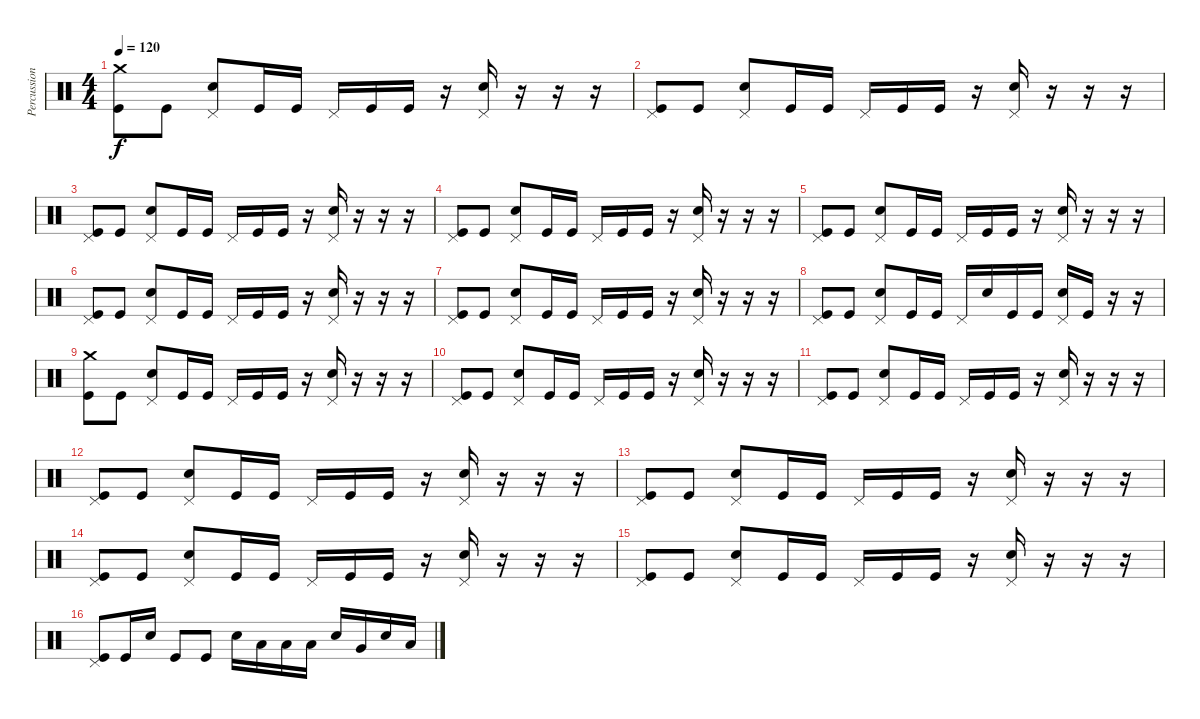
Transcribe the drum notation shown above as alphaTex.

\track ("Percussion" "Percussion") {instrument percussion}
\staff {score}
\articulation defaults
\ts (4 4)
\tempo 120
\clef neutral
\ks c
("Crash medium (hit)" "Kick (hit)").8{dy f} "Kick (hit)".8 ("Pedal Hi-Hat (hit)" "Electric Snare (hit)").8 "Kick (hit)".16 "Kick (hit)".16 "Pedal Hi-Hat (hit)".16 "Kick (hit)".16 "Kick (hit)".16 r.16 ("Pedal Hi-Hat (hit)" "Electric Snare (hit)").16 r.16 r.16 r.16 |
("Pedal Hi-Hat (hit)" "Kick (hit)").8 "Kick (hit)".8 ("Pedal Hi-Hat (hit)" "Electric Snare (hit)").8 "Kick (hit)".16 "Kick (hit)".16 "Pedal Hi-Hat (hit)".16 "Kick (hit)".16 "Kick (hit)".16 r.16 ("Pedal Hi-Hat (hit)" "Electric Snare (hit)").16 r.16 r.16 r.16 |
("Pedal Hi-Hat (hit)" "Kick (hit)").8 "Kick (hit)".8 ("Pedal Hi-Hat (hit)" "Electric Snare (hit)").8 "Kick (hit)".16 "Kick (hit)".16 "Pedal Hi-Hat (hit)".16 "Kick (hit)".16 "Kick (hit)".16 r.16 ("Pedal Hi-Hat (hit)" "Electric Snare (hit)").16 r.16 r.16 r.16 |
("Pedal Hi-Hat (hit)" "Kick (hit)").8 "Kick (hit)".8 ("Pedal Hi-Hat (hit)" "Electric Snare (hit)").8 "Kick (hit)".16 "Kick (hit)".16 "Pedal Hi-Hat (hit)".16 "Kick (hit)".16 "Kick (hit)".16 r.16 ("Pedal Hi-Hat (hit)" "Electric Snare (hit)").16 r.16 r.16 r.16 |
("Pedal Hi-Hat (hit)" "Kick (hit)").8 "Kick (hit)".8 ("Pedal Hi-Hat (hit)" "Electric Snare (hit)").8 "Kick (hit)".16 "Kick (hit)".16 "Pedal Hi-Hat (hit)".16 "Kick (hit)".16 "Kick (hit)".16 r.16 ("Pedal Hi-Hat (hit)" "Electric Snare (hit)").16 r.16 r.16 r.16 |
("Pedal Hi-Hat (hit)" "Kick (hit)").8 "Kick (hit)".8 ("Pedal Hi-Hat (hit)" "Electric Snare (hit)").8 "Kick (hit)".16 "Kick (hit)".16 "Pedal Hi-Hat (hit)".16 "Kick (hit)".16 "Kick (hit)".16 r.16 ("Pedal Hi-Hat (hit)" "Electric Snare (hit)").16 r.16 r.16 r.16 |
("Pedal Hi-Hat (hit)" "Kick (hit)").8 "Kick (hit)".8 ("Pedal Hi-Hat (hit)" "Electric Snare (hit)").8 "Kick (hit)".16 "Kick (hit)".16 "Pedal Hi-Hat (hit)".16 "Kick (hit)".16 "Kick (hit)".16 r.16 ("Pedal Hi-Hat (hit)" "Electric Snare (hit)").16 r.16 r.16 r.16 |
("Pedal Hi-Hat (hit)" "Kick (hit)").8 "Kick (hit)".8 ("Pedal Hi-Hat (hit)" "Electric Snare (hit)").8 "Kick (hit)".16 "Kick (hit)".16 "Pedal Hi-Hat (hit)".16 "Electric Snare (hit)".16 "Kick (hit)".16 "Kick (hit)".16 ("Pedal Hi-Hat (hit)" "Electric Snare (hit)").16 "Kick (hit)".16 r.16 r.16 |
("Crash medium (hit)" "Kick (hit)").8 "Kick (hit)".8 ("Pedal Hi-Hat (hit)" "Electric Snare (hit)").8 "Kick (hit)".16 "Kick (hit)".16 "Pedal Hi-Hat (hit)".16 "Kick (hit)".16 "Kick (hit)".16 r.16 ("Pedal Hi-Hat (hit)" "Electric Snare (hit)").16 r.16 r.16 r.16 |
("Pedal Hi-Hat (hit)" "Kick (hit)").8 "Kick (hit)".8 ("Pedal Hi-Hat (hit)" "Electric Snare (hit)").8 "Kick (hit)".16 "Kick (hit)".16 "Pedal Hi-Hat (hit)".16 "Kick (hit)".16 "Kick (hit)".16 r.16 ("Pedal Hi-Hat (hit)" "Electric Snare (hit)").16 r.16 r.16 r.16 |
("Pedal Hi-Hat (hit)" "Kick (hit)").8 "Kick (hit)".8 ("Pedal Hi-Hat (hit)" "Electric Snare (hit)").8 "Kick (hit)".16 "Kick (hit)".16 "Pedal Hi-Hat (hit)".16 "Kick (hit)".16 "Kick (hit)".16 r.16 ("Pedal Hi-Hat (hit)" "Electric Snare (hit)").16 r.16 r.16 r.16 |
("Pedal Hi-Hat (hit)" "Kick (hit)").8 "Kick (hit)".8 ("Pedal Hi-Hat (hit)" "Electric Snare (hit)").8 "Kick (hit)".16 "Kick (hit)".16 "Pedal Hi-Hat (hit)".16 "Kick (hit)".16 "Kick (hit)".16 r.16 ("Pedal Hi-Hat (hit)" "Electric Snare (hit)").16 r.16 r.16 r.16 |
("Pedal Hi-Hat (hit)" "Kick (hit)").8 "Kick (hit)".8 ("Pedal Hi-Hat (hit)" "Electric Snare (hit)").8 "Kick (hit)".16 "Kick (hit)".16 "Pedal Hi-Hat (hit)".16 "Kick (hit)".16 "Kick (hit)".16 r.16 ("Pedal Hi-Hat (hit)" "Electric Snare (hit)").16 r.16 r.16 r.16 |
("Pedal Hi-Hat (hit)" "Kick (hit)").8 "Kick (hit)".8 ("Pedal Hi-Hat (hit)" "Electric Snare (hit)").8 "Kick (hit)".16 "Kick (hit)".16 "Pedal Hi-Hat (hit)".16 "Kick (hit)".16 "Kick (hit)".16 r.16 ("Pedal Hi-Hat (hit)" "Electric Snare (hit)").16 r.16 r.16 r.16 |
("Pedal Hi-Hat (hit)" "Kick (hit)").8 "Kick (hit)".8 ("Pedal Hi-Hat (hit)" "Electric Snare (hit)").8 "Kick (hit)".16 "Kick (hit)".16 "Pedal Hi-Hat (hit)".16 "Kick (hit)".16 "Kick (hit)".16 r.16 ("Pedal Hi-Hat (hit)" "Electric Snare (hit)").16 r.16 r.16 r.16 |
("Pedal Hi-Hat (hit)" "Kick (hit)").8 "Kick (hit)".16 "Electric Snare (hit)".16 "Kick (hit)".8 "Kick (hit)".8 "Electric Snare (hit)".16 "Low Tom (hit)".16 "Low Tom (hit)".16 "Low Tom (hit)".16 "Electric Snare (hit)".16 "Very Low Tom (hit)".16 "Electric Snare (hit)".16 "Low Tom (hit)".16
